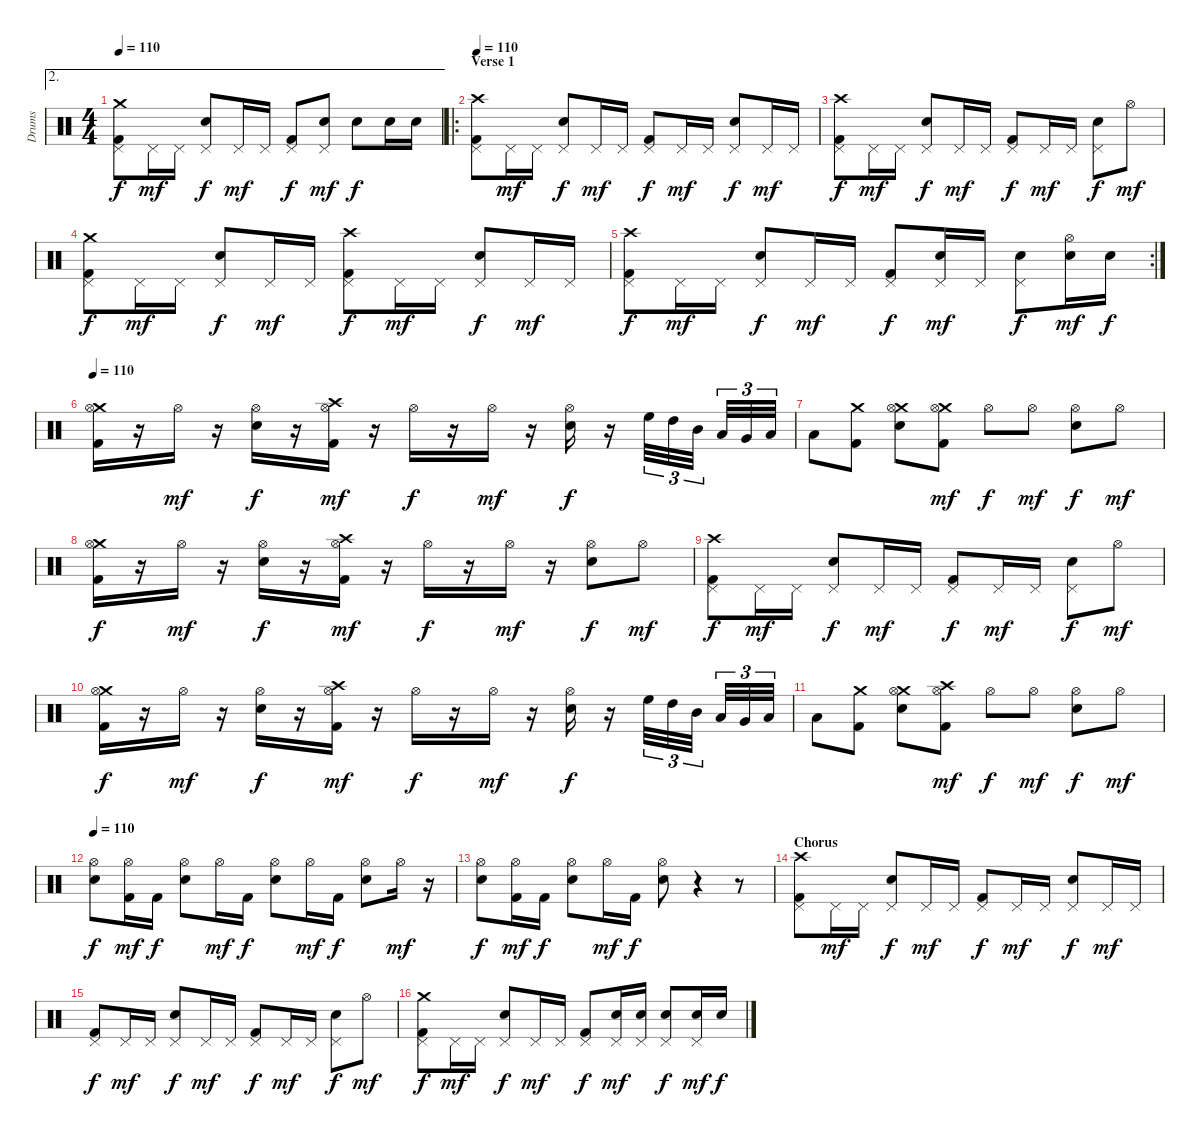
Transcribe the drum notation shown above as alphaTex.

\track ("Drums" "Drums") {instrument percussion}
\staff {score}
\articulation defaults
\ae 2
\ts (4 4)
\tempo 110
\clef neutral
\ks c
("Crash medium (hit)" "Pedal Hi-Hat (hit)" "Kick (hit) 2").8{dy f} "Pedal Hi-Hat (hit)".16{dy mf} "Pedal Hi-Hat (hit)".16 ("Pedal Hi-Hat (hit)" "Snare (hit) 2").8{dy f} "Pedal Hi-Hat (hit)".16{dy mf} "Pedal Hi-Hat (hit)".16 ("Pedal Hi-Hat (hit)" "Kick (hit) 2").8{dy f} ("Pedal Hi-Hat (hit)" "Snare (hit) 2").8{dy mf} "Snare (hit) 2".8{dy f} "Snare (hit) 2".16 "Snare (hit) 2".16 |
\ro
\section ("" "Verse 1 ")
\tempo 110
("Crash high (hit)" "Pedal Hi-Hat (hit)" "Kick (hit) 2").8 "Pedal Hi-Hat (hit)".16{dy mf} "Pedal Hi-Hat (hit)".16 ("Pedal Hi-Hat (hit)" "Snare (hit) 2").8{dy f} "Pedal Hi-Hat (hit)".16{dy mf} "Pedal Hi-Hat (hit)".16 ("Pedal Hi-Hat (hit)" "Kick (hit) 2").8{dy f} "Pedal Hi-Hat (hit)".16{dy mf} "Pedal Hi-Hat (hit)".16 ("Pedal Hi-Hat (hit)" "Snare (hit) 2").8{dy f} "Pedal Hi-Hat (hit)".16{dy mf} "Pedal Hi-Hat (hit)".16 |
("Crash high (hit)" "Pedal Hi-Hat (hit)" "Kick (hit) 2").8{dy f} "Pedal Hi-Hat (hit)".16{dy mf} "Pedal Hi-Hat (hit)".16 ("Pedal Hi-Hat (hit)" "Snare (hit) 2").8{dy f} "Pedal Hi-Hat (hit)".16{dy mf} "Pedal Hi-Hat (hit)".16 ("Pedal Hi-Hat (hit)" "Kick (hit) 2").8{dy f} "Pedal Hi-Hat (hit)".16{dy mf} "Pedal Hi-Hat (hit)".16 ("Pedal Hi-Hat (hit)" "Snare (hit) 2").8{dy f} "Hi-Hat (open)".8{dy mf} |
("Crash medium (hit)" "Pedal Hi-Hat (hit)" "Kick (hit) 2").8{dy f} "Pedal Hi-Hat (hit)".16{dy mf} "Pedal Hi-Hat (hit)".16 ("Pedal Hi-Hat (hit)" "Snare (hit) 2").8{dy f} "Pedal Hi-Hat (hit)".16{dy mf} "Pedal Hi-Hat (hit)".16 ("Crash high (hit)" "Pedal Hi-Hat (hit)" "Kick (hit) 2").8{dy f} "Pedal Hi-Hat (hit)".16{dy mf} "Pedal Hi-Hat (hit)".16 ("Pedal Hi-Hat (hit)" "Snare (hit) 2").8{dy f} "Pedal Hi-Hat (hit)".16{dy mf} "Pedal Hi-Hat (hit)".16 |
\rc 2
("Crash high (hit)" "Pedal Hi-Hat (hit)" "Kick (hit) 2").8{dy f} "Pedal Hi-Hat (hit)".16{dy mf} "Pedal Hi-Hat (hit)".16 ("Pedal Hi-Hat (hit)" "Snare (hit) 2").8{dy f} "Pedal Hi-Hat (hit)".16{dy mf} "Pedal Hi-Hat (hit)".16 ("Pedal Hi-Hat (hit)" "Kick (hit) 2").8{dy f} ("Pedal Hi-Hat (hit)" "Snare (hit) 2").16{dy mf} "Pedal Hi-Hat (hit)".16 ("Pedal Hi-Hat (hit)" "Snare (hit) 2").8{dy f} ("Hi-Hat (open)" "Snare (hit) 2").16{dy mf} "Snare (hit) 2".16{dy f} |
\tempo 110
("Crash medium (hit)" "Hi-Hat (open)" "Kick (hit) 2").16 r.16 "Hi-Hat (open)".16{dy mf} r.16 ("Hi-Hat (open)" "Snare (hit) 2").16{dy f} r.16 ("Crash high (hit)" "Hi-Hat (open)" "Kick (hit) 2").16{dy mf} r.16 "Hi-Hat (open)".16{dy f} r.16 "Hi-Hat (open)".16{dy mf} r.16 ("Snare (hit) 2" "Hi-Hat (open)").16{dy f} r.16 "High Floor Tom (hit)".32{tu (3 2)} "High Tom (hit)".32{tu (3 2)} "Mid Tom (hit)".32{tu (3 2)} "Low Tom (hit)".32{tu (3 2)} "Very Low Tom (hit)".32{tu (3 2)} "Low Floor Tom (hit)".32{tu (3 2)} |
"Low Tom (hit)".8 ("Crash medium (hit)" "Kick (hit) 2").8 ("Crash medium (hit)" "Hi-Hat (open)" "Snare (hit) 2").8 ("Crash medium (hit)" "Hi-Hat (open)" "Kick (hit) 2").8{dy mf} "Hi-Hat (open)".8{dy f} "Hi-Hat (open)".8{dy mf} ("Hi-Hat (open)" "Snare (hit) 2").8{dy f} "Hi-Hat (open)".8{dy mf} |
("Crash medium (hit)" "Hi-Hat (open)" "Kick (hit) 2").16{dy f} r.16 "Hi-Hat (open)".16{dy mf} r.16 ("Hi-Hat (open)" "Snare (hit) 2").16{dy f} r.16 ("Crash high (hit)" "Hi-Hat (open)" "Kick (hit) 2").16{dy mf} r.16 "Hi-Hat (open)".16{dy f} r.16 "Hi-Hat (open)".16{dy mf} r.16 ("Hi-Hat (open)" "Snare (hit) 2").8{dy f} "Hi-Hat (open)".8{dy mf} |
("Crash high (hit)" "Pedal Hi-Hat (hit)" "Kick (hit) 2").8{dy f} "Pedal Hi-Hat (hit)".16{dy mf} "Pedal Hi-Hat (hit)".16 ("Pedal Hi-Hat (hit)" "Snare (hit) 2").8{dy f} "Pedal Hi-Hat (hit)".16{dy mf} "Pedal Hi-Hat (hit)".16 ("Pedal Hi-Hat (hit)" "Kick (hit) 2").8{dy f} "Pedal Hi-Hat (hit)".16{dy mf} "Pedal Hi-Hat (hit)".16 ("Pedal Hi-Hat (hit)" "Snare (hit) 2").8{dy f} "Hi-Hat (open)".8{dy mf} |
("Crash medium (hit)" "Hi-Hat (open)" "Kick (hit) 2").16{dy f} r.16 "Hi-Hat (open)".16{dy mf} r.16 ("Hi-Hat (open)" "Snare (hit) 2").16{dy f} r.16 ("Crash high (hit)" "Hi-Hat (open)" "Kick (hit) 2").16{dy mf} r.16 "Hi-Hat (open)".16{dy f} r.16 "Hi-Hat (open)".16{dy mf} r.16 ("Hi-Hat (open)" "Snare (hit) 2").16{dy f} r.16 "High Floor Tom (hit)".32{tu (3 2)} "High Tom (hit)".32{tu (3 2)} "Mid Tom (hit)".32{tu (3 2)} "Low Tom (hit)".32{tu (3 2)} "Very Low Tom (hit)".32{tu (3 2)} "Low Floor Tom (hit)".32{tu (3 2)} |
"Low Tom (hit)".8 ("Crash medium (hit)" "Kick (hit) 2").8 ("Crash medium (hit)" "Hi-Hat (open)" "Snare (hit) 2").8 ("Crash high (hit)" "Hi-Hat (open)" "Kick (hit) 2").8{dy mf} "Hi-Hat (open)".8{dy f} "Hi-Hat (open)".8{dy mf} ("Hi-Hat (open)" "Snare (hit) 2").8{dy f} "Hi-Hat (open)".8{dy mf} |
\tempo 110
("Hi-Hat (open)" "Snare (hit) 2").8{dy f} ("Hi-Hat (open)" "Kick (hit) 2").16{dy mf} "Kick (hit) 2".16{dy f} ("Hi-Hat (open)" "Snare (hit) 2").8 "Hi-Hat (open)".16{dy mf} "Kick (hit) 2".16{dy f} ("Hi-Hat (open)" "Snare (hit) 2").8 "Hi-Hat (open)".16{dy mf} "Kick (hit) 2".16{dy f} ("Hi-Hat (open)" "Snare (hit) 2").8 "Hi-Hat (open)".16{dy mf} r.16 |
("Hi-Hat (open)" "Snare (hit) 2").8{dy f} ("Hi-Hat (open)" "Kick (hit) 2").16{dy mf} "Kick (hit) 2".16{dy f} ("Hi-Hat (open)" "Snare (hit) 2").8 "Hi-Hat (open)".16{dy mf} "Kick (hit) 2".16{dy f} ("Hi-Hat (open)" "Snare (hit) 2").8 r.4 r.8 |
\section ("" "Chorus")
("Crash high (hit)" "Pedal Hi-Hat (hit)" "Kick (hit) 2").8 "Pedal Hi-Hat (hit)".16{dy mf} "Pedal Hi-Hat (hit)".16 ("Pedal Hi-Hat (hit)" "Snare (hit) 2").8{dy f} "Pedal Hi-Hat (hit)".16{dy mf} "Pedal Hi-Hat (hit)".16 ("Pedal Hi-Hat (hit)" "Kick (hit) 2").8{dy f} "Pedal Hi-Hat (hit)".16{dy mf} "Pedal Hi-Hat (hit)".16 ("Pedal Hi-Hat (hit)" "Snare (hit) 2").8{dy f} "Pedal Hi-Hat (hit)".16{dy mf} "Pedal Hi-Hat (hit)".16 |
("Pedal Hi-Hat (hit)" "Kick (hit) 2").8{dy f} "Pedal Hi-Hat (hit)".16{dy mf} "Pedal Hi-Hat (hit)".16 ("Pedal Hi-Hat (hit)" "Snare (hit) 2").8{dy f} "Pedal Hi-Hat (hit)".16{dy mf} "Pedal Hi-Hat (hit)".16 ("Pedal Hi-Hat (hit)" "Kick (hit) 2").8{dy f} "Pedal Hi-Hat (hit)".16{dy mf} "Pedal Hi-Hat (hit)".16 ("Pedal Hi-Hat (hit)" "Snare (hit) 2").8{dy f} "Hi-Hat (open)".8{dy mf} |
("Crash medium (hit)" "Pedal Hi-Hat (hit)" "Kick (hit) 2").8{dy f} "Pedal Hi-Hat (hit)".16{dy mf} "Pedal Hi-Hat (hit)".16 ("Pedal Hi-Hat (hit)" "Snare (hit) 2").8{dy f} "Pedal Hi-Hat (hit)".16{dy mf} "Pedal Hi-Hat (hit)".16 ("Pedal Hi-Hat (hit)" "Kick (hit) 2").8{dy f} ("Pedal Hi-Hat (hit)" "Snare (hit) 2").16{dy mf} ("Pedal Hi-Hat (hit)" "Snare (hit) 2").16 ("Pedal Hi-Hat (hit)" "Snare (hit) 2").8{dy f} ("Pedal Hi-Hat (hit)" "Snare (hit) 2").16{dy mf} "Snare (hit) 2".16{dy f}
